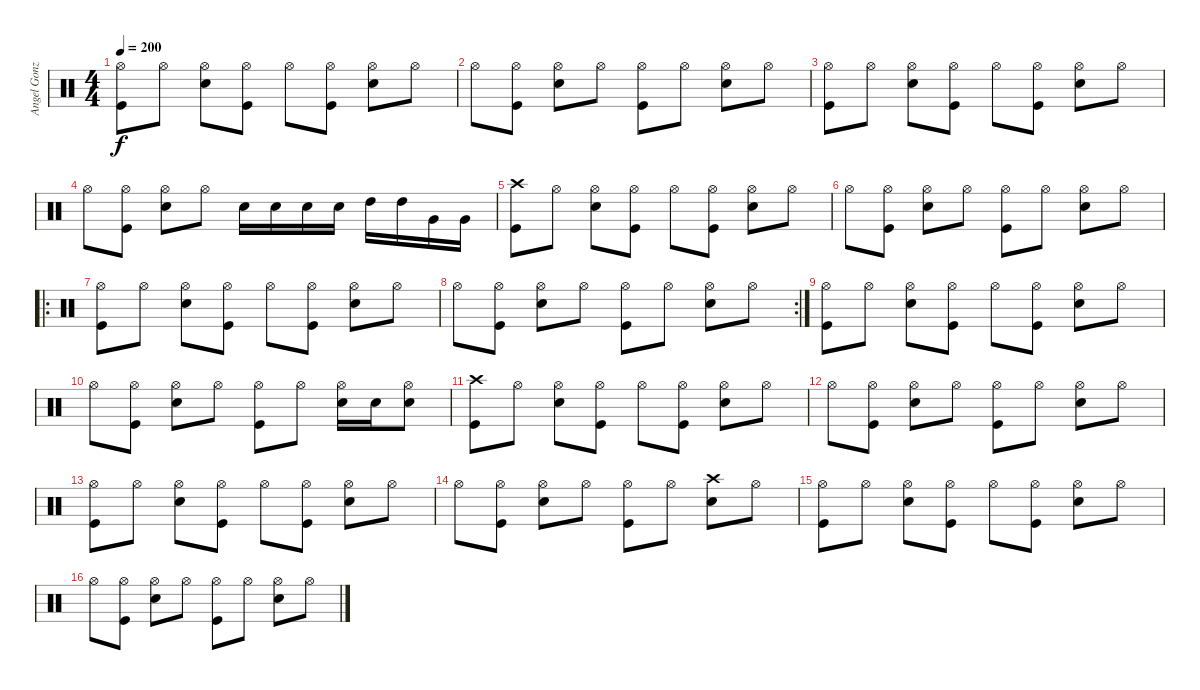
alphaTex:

\track ("Angel Gonzalez - Batería" "Angel Gonz") {instrument percussion}
\staff {score}
\articulation defaults
\ts (4 4)
\tempo 200
\clef neutral
\ks c
("Hi-Hat (open)" "Kick (hit)").8{dy f} "Hi-Hat (open)".8 ("Snare (hit) 2" "Hi-Hat (open)").8 ("Hi-Hat (open)" "Kick (hit)").8 "Hi-Hat (open)".8 ("Hi-Hat (open)" "Kick (hit)").8 ("Snare (hit) 2" "Hi-Hat (open)").8 "Hi-Hat (open)".8 |
"Hi-Hat (open)".8 ("Hi-Hat (open)" "Kick (hit)").8 ("Snare (hit) 2" "Hi-Hat (open)").8 "Hi-Hat (open)".8 ("Hi-Hat (open)" "Kick (hit)").8 "Hi-Hat (open)".8 ("Snare (hit) 2" "Hi-Hat (open)").8 "Hi-Hat (open)".8 |
("Hi-Hat (open)" "Kick (hit)").8 "Hi-Hat (open)".8 ("Snare (hit) 2" "Hi-Hat (open)").8 ("Hi-Hat (open)" "Kick (hit)").8 "Hi-Hat (open)".8 ("Hi-Hat (open)" "Kick (hit)").8 ("Snare (hit) 2" "Hi-Hat (open)").8 "Hi-Hat (open)".8 |
"Hi-Hat (open)".8 ("Hi-Hat (open)" "Kick (hit)").8 ("Snare (hit) 2" "Hi-Hat (open)").8 "Hi-Hat (open)".8 "Snare (hit) 2".16 "Snare (hit) 2".16 "Snare (hit) 2".16 "Snare (hit) 2".16 "High Tom (hit)".16 "High Tom (hit)".16 "Very Low Tom (hit)".16 "Very Low Tom (hit)".16 |
("Crash high (hit)" "Kick (hit)").8 "Hi-Hat (open)".8 ("Snare (hit) 2" "Hi-Hat (open)").8 ("Hi-Hat (open)" "Kick (hit)").8 "Hi-Hat (open)".8 ("Hi-Hat (open)" "Kick (hit)").8 ("Snare (hit) 2" "Hi-Hat (open)").8 "Hi-Hat (open)".8 |
"Hi-Hat (open)".8 ("Hi-Hat (open)" "Kick (hit)").8 ("Snare (hit) 2" "Hi-Hat (open)").8 "Hi-Hat (open)".8 ("Hi-Hat (open)" "Kick (hit)").8 "Hi-Hat (open)".8 ("Snare (hit) 2" "Hi-Hat (open)").8 "Hi-Hat (open)".8 |
\ro
("Hi-Hat (open)" "Kick (hit)").8 "Hi-Hat (open)".8 ("Snare (hit) 2" "Hi-Hat (open)").8 ("Hi-Hat (open)" "Kick (hit)").8 "Hi-Hat (open)".8 ("Hi-Hat (open)" "Kick (hit)").8 ("Snare (hit) 2" "Hi-Hat (open)").8 "Hi-Hat (open)".8 |
\rc 2 "Hi-Hat (open)".8
("Hi-Hat (open)" "Kick (hit)").8 ("Snare (hit) 2" "Hi-Hat (open)").8 "Hi-Hat (open)".8 ("Hi-Hat (open)" "Kick (hit)").8 "Hi-Hat (open)".8 ("Snare (hit) 2" "Hi-Hat (open)").8 "Hi-Hat (open)".8 |
("Hi-Hat (open)" "Kick (hit)").8 "Hi-Hat (open)".8 ("Snare (hit) 2" "Hi-Hat (open)").8 ("Hi-Hat (open)" "Kick (hit)").8 "Hi-Hat (open)".8 ("Hi-Hat (open)" "Kick (hit)").8 ("Snare (hit) 2" "Hi-Hat (open)").8 "Hi-Hat (open)".8 |
"Hi-Hat (open)".8 ("Hi-Hat (open)" "Kick (hit)").8 ("Snare (hit) 2" "Hi-Hat (open)").8 "Hi-Hat (open)".8 ("Hi-Hat (open)" "Kick (hit)").8 "Hi-Hat (open)".8 ("Snare (hit) 2" "Hi-Hat (open)").16 "Snare (hit) 2".16 ("Snare (hit) 2" "Hi-Hat (open)").8 |
("Crash high (hit)" "Kick (hit)").8 "Hi-Hat (open)".8 ("Snare (hit) 2" "Hi-Hat (open)").8 ("Hi-Hat (open)" "Kick (hit)").8 "Hi-Hat (open)".8 ("Hi-Hat (open)" "Kick (hit)").8 ("Snare (hit) 2" "Hi-Hat (open)").8 "Hi-Hat (open)".8 |
"Hi-Hat (open)".8 ("Hi-Hat (open)" "Kick (hit)").8 ("Snare (hit) 2" "Hi-Hat (open)").8 "Hi-Hat (open)".8 ("Hi-Hat (open)" "Kick (hit)").8 "Hi-Hat (open)".8 ("Snare (hit) 2" "Hi-Hat (open)").8 "Hi-Hat (open)".8 |
("Hi-Hat (open)" "Kick (hit)").8 "Hi-Hat (open)".8 ("Snare (hit) 2" "Hi-Hat (open)").8 ("Hi-Hat (open)" "Kick (hit)").8 "Hi-Hat (open)".8 ("Hi-Hat (open)" "Kick (hit)").8 ("Snare (hit) 2" "Hi-Hat (open)").8 "Hi-Hat (open)".8 |
"Hi-Hat (open)".8 ("Hi-Hat (open)" "Kick (hit)").8 ("Snare (hit) 2" "Hi-Hat (open)").8 "Hi-Hat (open)".8 ("Hi-Hat (open)" "Kick (hit)").8 "Hi-Hat (open)".8 ("Crash high (hit)" "Snare (hit) 2").8 "Hi-Hat (open)".8 |
("Hi-Hat (open)" "Kick (hit)").8 "Hi-Hat (open)".8 ("Snare (hit) 2" "Hi-Hat (open)").8 ("Hi-Hat (open)" "Kick (hit)").8 "Hi-Hat (open)".8 ("Hi-Hat (open)" "Kick (hit)").8 ("Snare (hit) 2" "Hi-Hat (open)").8 "Hi-Hat (open)".8 |
"Hi-Hat (open)".8 ("Hi-Hat (open)" "Kick (hit)").8 ("Snare (hit) 2" "Hi-Hat (open)").8 "Hi-Hat (open)".8 ("Hi-Hat (open)" "Kick (hit)").8 "Hi-Hat (open)".8 ("Snare (hit) 2" "Hi-Hat (open)").8 "Hi-Hat (open)".8
